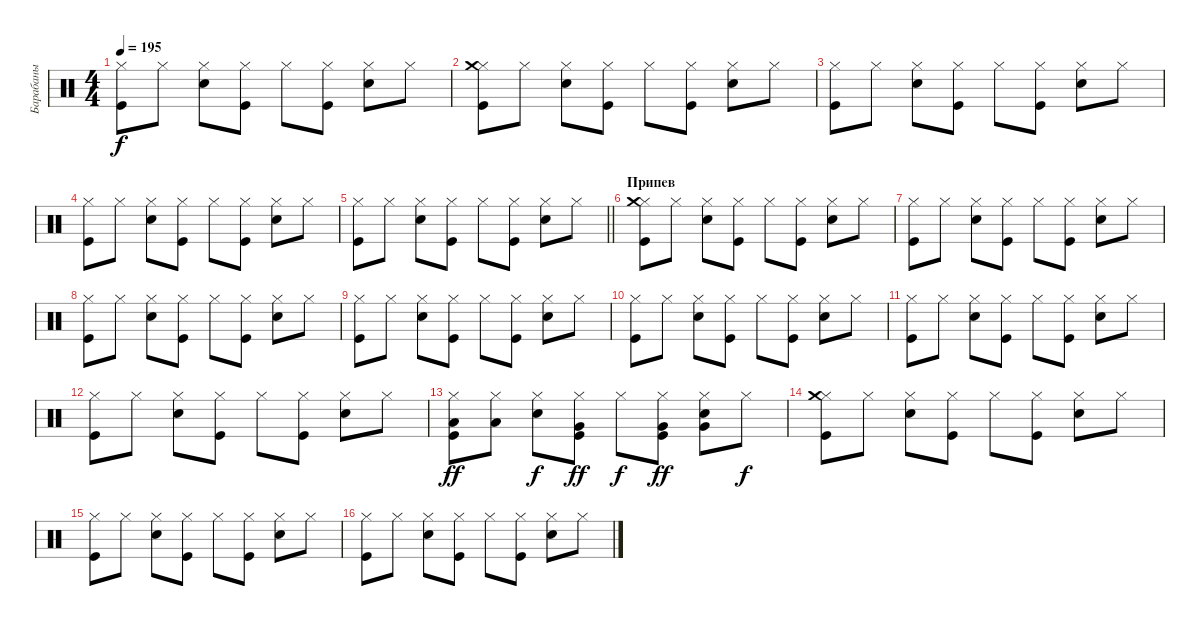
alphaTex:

\track ("Барабаны" "Барабаны") {instrument percussion}
\staff {score}
\articulation defaults
\ts (4 4)
\tempo 195
\clef neutral
\ks c
("Kick (hit)" "Hi-Hat (closed)").8{dy f} "Hi-Hat (closed)".8 ("Snare (hit) 2" "Hi-Hat (closed)").8 ("Kick (hit)" "Hi-Hat (closed)").8 "Hi-Hat (closed)".8 ("Kick (hit)" "Hi-Hat (closed)").8 ("Snare (hit) 2" "Hi-Hat (closed)").8 "Hi-Hat (closed)".8 |
("Kick (hit)" "Hi-Hat (closed)" "Crash medium (hit)").8 "Hi-Hat (closed)".8 ("Snare (hit) 2" "Hi-Hat (closed)").8 ("Kick (hit)" "Hi-Hat (closed)").8 "Hi-Hat (closed)".8 ("Kick (hit)" "Hi-Hat (closed)").8 ("Snare (hit) 2" "Hi-Hat (closed)").8 "Hi-Hat (closed)".8 |
("Kick (hit)" "Hi-Hat (closed)").8 "Hi-Hat (closed)".8 ("Snare (hit) 2" "Hi-Hat (closed)").8 ("Kick (hit)" "Hi-Hat (closed)").8 "Hi-Hat (closed)".8 ("Kick (hit)" "Hi-Hat (closed)").8 ("Snare (hit) 2" "Hi-Hat (closed)").8 "Hi-Hat (closed)".8 |
("Kick (hit)" "Hi-Hat (closed)").8 "Hi-Hat (closed)".8 ("Snare (hit) 2" "Hi-Hat (closed)").8 ("Kick (hit)" "Hi-Hat (closed)").8 "Hi-Hat (closed)".8 ("Kick (hit)" "Hi-Hat (closed)").8 ("Snare (hit) 2" "Hi-Hat (closed)").8 "Hi-Hat (closed)".8 |
\barLineRight lightlight
("Kick (hit)" "Hi-Hat (closed)").8 "Hi-Hat (closed)".8 ("Snare (hit) 2" "Hi-Hat (closed)").8 ("Kick (hit)" "Hi-Hat (closed)").8 "Hi-Hat (closed)".8 ("Kick (hit)" "Hi-Hat (closed)").8 ("Snare (hit) 2" "Hi-Hat (closed)").8 "Hi-Hat (closed)".8 |
\section ("" "Припев")
("Kick (hit)" "Hi-Hat (closed)" "Crash medium (hit)").8 "Hi-Hat (closed)".8 ("Snare (hit) 2" "Hi-Hat (closed)").8 ("Kick (hit)" "Hi-Hat (closed)").8 "Hi-Hat (closed)".8 ("Kick (hit)" "Hi-Hat (closed)").8 ("Snare (hit) 2" "Hi-Hat (closed)").8 "Hi-Hat (closed)".8 |
("Kick (hit)" "Hi-Hat (closed)").8 "Hi-Hat (closed)".8 ("Snare (hit) 2" "Hi-Hat (closed)").8 ("Kick (hit)" "Hi-Hat (closed)").8 "Hi-Hat (closed)".8 ("Kick (hit)" "Hi-Hat (closed)").8 ("Snare (hit) 2" "Hi-Hat (closed)").8 "Hi-Hat (closed)".8 |
("Kick (hit)" "Hi-Hat (closed)").8 "Hi-Hat (closed)".8 ("Snare (hit) 2" "Hi-Hat (closed)").8 ("Kick (hit)" "Hi-Hat (closed)").8 "Hi-Hat (closed)".8 ("Kick (hit)" "Hi-Hat (closed)").8 ("Snare (hit) 2" "Hi-Hat (closed)").8 "Hi-Hat (closed)".8 |
("Kick (hit)" "Hi-Hat (closed)").8 "Hi-Hat (closed)".8 ("Snare (hit) 2" "Hi-Hat (closed)").8 ("Kick (hit)" "Hi-Hat (closed)").8 "Hi-Hat (closed)".8 ("Kick (hit)" "Hi-Hat (closed)").8 ("Snare (hit) 2" "Hi-Hat (closed)").8 "Hi-Hat (closed)".8 |
("Kick (hit)" "Hi-Hat (closed)").8 "Hi-Hat (closed)".8 ("Snare (hit) 2" "Hi-Hat (closed)").8 ("Kick (hit)" "Hi-Hat (closed)").8 "Hi-Hat (closed)".8 ("Kick (hit)" "Hi-Hat (closed)").8 ("Snare (hit) 2" "Hi-Hat (closed)").8 "Hi-Hat (closed)".8 |
("Kick (hit)" "Hi-Hat (closed)").8 "Hi-Hat (closed)".8 ("Snare (hit) 2" "Hi-Hat (closed)").8 ("Kick (hit)" "Hi-Hat (closed)").8 "Hi-Hat (closed)".8 ("Kick (hit)" "Hi-Hat (closed)").8 ("Snare (hit) 2" "Hi-Hat (closed)").8 "Hi-Hat (closed)".8 |
("Kick (hit)" "Hi-Hat (closed)").8 "Hi-Hat (closed)".8 ("Snare (hit) 2" "Hi-Hat (closed)").8 ("Kick (hit)" "Hi-Hat (closed)").8 "Hi-Hat (closed)".8 ("Kick (hit)" "Hi-Hat (closed)").8 ("Snare (hit) 2" "Hi-Hat (closed)").8 "Hi-Hat (closed)".8 |
("Kick (hit)" "Hi-Hat (closed)" "Low Tom (hit)").8{dy ff} ("Hi-Hat (closed)" "Low Tom (hit)").8 ("Snare (hit) 2" "Hi-Hat (closed)").8{dy f} ("Kick (hit)" "Hi-Hat (closed)" "Very Low Tom (hit)").8{dy ff} "Hi-Hat (closed)".8{dy f} ("Kick (hit)" "Hi-Hat (closed)" "Very Low Tom (hit)").8{dy ff} ("Snare (hit) 2" "Hi-Hat (closed)" "Very Low Tom (hit)").8 "Hi-Hat (closed)".8{dy f} |
("Kick (hit)" "Hi-Hat (closed)" "Crash medium (hit)").8 "Hi-Hat (closed)".8 ("Snare (hit) 2" "Hi-Hat (closed)").8 ("Kick (hit)" "Hi-Hat (closed)").8 "Hi-Hat (closed)".8 ("Kick (hit)" "Hi-Hat (closed)").8 ("Snare (hit) 2" "Hi-Hat (closed)").8 "Hi-Hat (closed)".8 |
("Kick (hit)" "Hi-Hat (closed)").8 "Hi-Hat (closed)".8 ("Snare (hit) 2" "Hi-Hat (closed)").8 ("Kick (hit)" "Hi-Hat (closed)").8 "Hi-Hat (closed)".8 ("Kick (hit)" "Hi-Hat (closed)").8 ("Snare (hit) 2" "Hi-Hat (closed)").8 "Hi-Hat (closed)".8 |
("Kick (hit)" "Hi-Hat (closed)").8 "Hi-Hat (closed)".8 ("Snare (hit) 2" "Hi-Hat (closed)").8 ("Kick (hit)" "Hi-Hat (closed)").8 "Hi-Hat (closed)".8 ("Kick (hit)" "Hi-Hat (closed)").8 ("Snare (hit) 2" "Hi-Hat (closed)").8 "Hi-Hat (closed)".8
